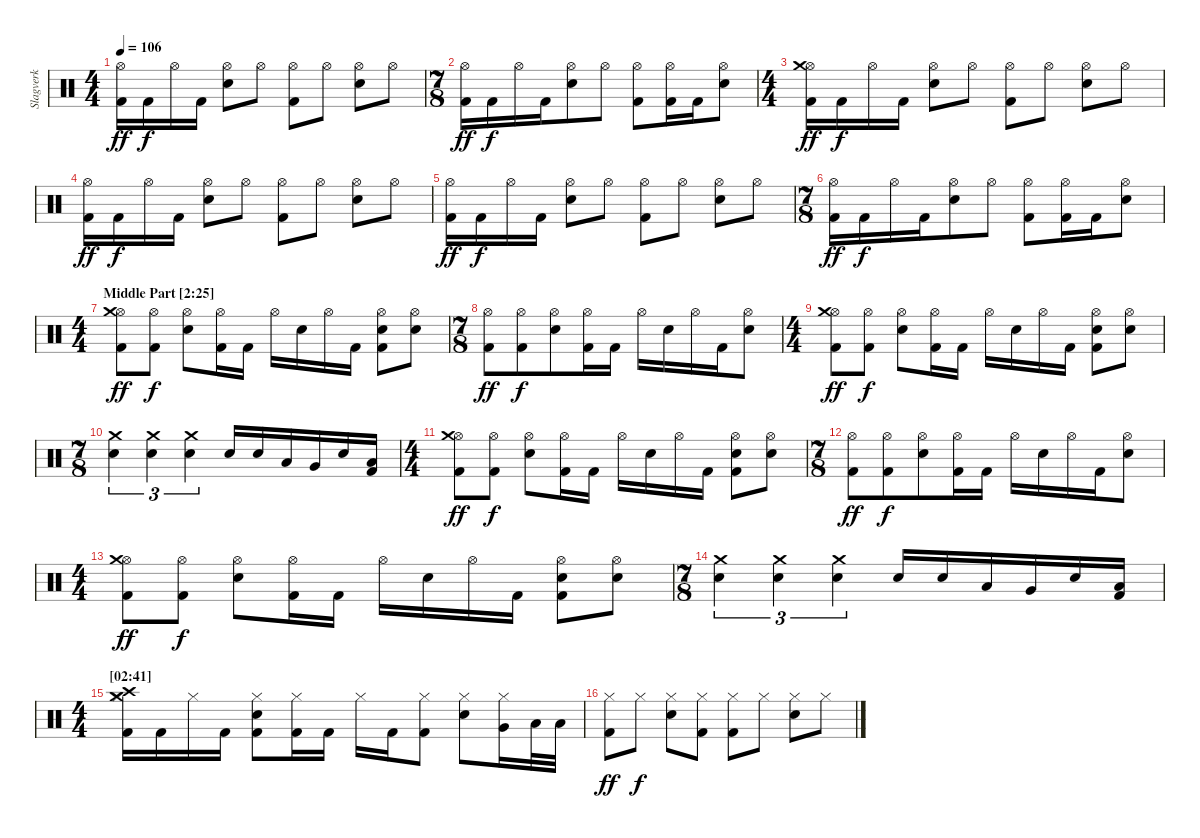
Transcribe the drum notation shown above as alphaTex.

\track ("Slagverk" "Slagverk") {instrument percussion}
\staff {score}
\articulation defaults
\ts (4 4)
\tempo 106
\clef neutral
\ks c
("Hi-Hat (open)" "Kick (hit) 2").16{dy ff} "Kick (hit) 2".16{dy f} "Hi-Hat (open)".16 "Kick (hit) 2".16 ("Hi-Hat (open)" "Electric Snare (hit)").8 "Hi-Hat (open)".8 ("Hi-Hat (open)" "Kick (hit) 2").8 "Hi-Hat (open)".8 ("Hi-Hat (open)" "Electric Snare (hit)").8 "Hi-Hat (open)".8 |
\ts (7 8)
("Hi-Hat (open)" "Kick (hit) 2").16{dy ff} "Kick (hit) 2".16{dy f} "Hi-Hat (open)".16 "Kick (hit) 2".16 ("Hi-Hat (open)" "Electric Snare (hit)").8 "Hi-Hat (open)".8 ("Hi-Hat (open)" "Kick (hit) 2").8 ("Hi-Hat (open)" "Kick (hit) 2").16 "Kick (hit) 2".16 ("Hi-Hat (open)" "Electric Snare (hit)").8 |
\ts (4 4)
("Hi-Hat (open)" "Crash medium (hit)" "Kick (hit) 2").16{dy ff} "Kick (hit) 2".16{dy f} "Hi-Hat (open)".16 "Kick (hit) 2".16 ("Hi-Hat (open)" "Electric Snare (hit)").8 "Hi-Hat (open)".8 ("Hi-Hat (open)" "Kick (hit) 2").8 "Hi-Hat (open)".8 ("Hi-Hat (open)" "Electric Snare (hit)").8 "Hi-Hat (open)".8 |
("Hi-Hat (open)" "Kick (hit) 2").16{dy ff} "Kick (hit) 2".16{dy f} "Hi-Hat (open)".16 "Kick (hit) 2".16 ("Hi-Hat (open)" "Electric Snare (hit)").8 "Hi-Hat (open)".8 ("Hi-Hat (open)" "Kick (hit) 2").8 "Hi-Hat (open)".8 ("Hi-Hat (open)" "Electric Snare (hit)").8 "Hi-Hat (open)".8 |
("Hi-Hat (open)" "Kick (hit) 2").16{dy ff} "Kick (hit) 2".16{dy f} "Hi-Hat (open)".16 "Kick (hit) 2".16 ("Hi-Hat (open)" "Electric Snare (hit)").8 "Hi-Hat (open)".8 ("Hi-Hat (open)" "Kick (hit) 2").8 "Hi-Hat (open)".8 ("Hi-Hat (open)" "Electric Snare (hit)").8 "Hi-Hat (open)".8 |
\ts (7 8)
("Hi-Hat (open)" "Kick (hit) 2").16{dy ff} "Kick (hit) 2".16{dy f} "Hi-Hat (open)".16 "Kick (hit) 2".16 ("Hi-Hat (open)" "Electric Snare (hit)").8 "Hi-Hat (open)".8 ("Hi-Hat (open)" "Kick (hit) 2").8 ("Hi-Hat (open)" "Kick (hit) 2").16 "Kick (hit) 2".16 ("Hi-Hat (open)" "Electric Snare (hit)").8 |
\ts (4 4)
\section ("" "Middle Part [2:25]")
("Hi-Hat (open)" "Crash medium (hit)" "Kick (hit) 2").8{dy ff} ("Hi-Hat (open)" "Kick (hit) 2").8{dy f} ("Hi-Hat (open)" "Electric Snare (hit)").8 ("Hi-Hat (open)" "Kick (hit) 2").16 "Kick (hit) 2".16 "Hi-Hat (open)".16 "Electric Snare (hit)".16 "Hi-Hat (open)".16 "Kick (hit) 2".16 ("Hi-Hat (open)" "Electric Snare (hit)" "Kick (hit) 2").8 ("Hi-Hat (open)" "Electric Snare (hit)").8 |
\ts (7 8)
("Hi-Hat (open)" "Kick (hit) 2").8{dy ff} ("Hi-Hat (open)" "Kick (hit) 2").8{dy f} ("Hi-Hat (open)" "Electric Snare (hit)").8 ("Hi-Hat (open)" "Kick (hit) 2").16 "Kick (hit) 2".16 "Hi-Hat (open)".16 "Electric Snare (hit)".16 "Hi-Hat (open)".16 "Kick (hit) 2".16 ("Hi-Hat (open)" "Electric Snare (hit)").8 |
\ts (4 4)
("Hi-Hat (open)" "Crash medium (hit)" "Kick (hit) 2").8{dy ff} ("Hi-Hat (open)" "Kick (hit) 2").8{dy f} ("Hi-Hat (open)" "Electric Snare (hit)").8 ("Hi-Hat (open)" "Kick (hit) 2").16 "Kick (hit) 2".16 "Hi-Hat (open)".16 "Electric Snare (hit)".16 "Hi-Hat (open)".16 "Kick (hit) 2".16 ("Hi-Hat (open)" "Electric Snare (hit)" "Kick (hit) 2").8 ("Hi-Hat (open)" "Electric Snare (hit)").8 |
\ts (7 8)
("Crash medium (hit)" "Electric Snare (hit)").4{tu (3 2)} ("Crash medium (hit)" "Electric Snare (hit)").4{tu (3 2)} ("Crash medium (hit)" "Electric Snare (hit)").4{tu (3 2)} "Electric Snare (hit)".16 "Electric Snare (hit)".16 "Low Tom (hit)".16 "Very Low Tom (hit)".16 "Electric Snare (hit)".16 ("Low Floor Tom (hit)" "Kick (hit) 2").16 |
\ts (4 4)
("Hi-Hat (open)" "Crash medium (hit)" "Kick (hit) 2").8{dy ff} ("Hi-Hat (open)" "Kick (hit) 2").8{dy f} ("Hi-Hat (open)" "Electric Snare (hit)").8 ("Hi-Hat (open)" "Kick (hit) 2").16 "Kick (hit) 2".16 "Hi-Hat (open)".16 "Electric Snare (hit)".16 "Hi-Hat (open)".16 "Kick (hit) 2".16 ("Hi-Hat (open)" "Electric Snare (hit)" "Kick (hit) 2").8 ("Hi-Hat (open)" "Electric Snare (hit)").8 |
\ts (7 8)
("Hi-Hat (open)" "Kick (hit) 2").8{dy ff} ("Hi-Hat (open)" "Kick (hit) 2").8{dy f} ("Hi-Hat (open)" "Electric Snare (hit)").8 ("Hi-Hat (open)" "Kick (hit) 2").16 "Kick (hit) 2".16 "Hi-Hat (open)".16 "Electric Snare (hit)".16 "Hi-Hat (open)".16 "Kick (hit) 2".16 ("Hi-Hat (open)" "Electric Snare (hit)").8 |
\ts (4 4)
("Hi-Hat (open)" "Crash medium (hit)" "Kick (hit) 2").8{dy ff} ("Hi-Hat (open)" "Kick (hit) 2").8{dy f} ("Hi-Hat (open)" "Electric Snare (hit)").8 ("Hi-Hat (open)" "Kick (hit) 2").16 "Kick (hit) 2".16 "Hi-Hat (open)".16 "Electric Snare (hit)".16 "Hi-Hat (open)".16 "Kick (hit) 2".16 ("Hi-Hat (open)" "Electric Snare (hit)" "Kick (hit) 2").8 ("Hi-Hat (open)" "Electric Snare (hit)").8 |
\ts (7 8)
("Crash medium (hit)" "Electric Snare (hit)").4{tu (3 2)} ("Crash medium (hit)" "Electric Snare (hit)").4{tu (3 2)} ("Crash medium (hit)" "Electric Snare (hit)").4{tu (3 2)} "Electric Snare (hit)".16 "Electric Snare (hit)".16 "Low Tom (hit)".16 "Very Low Tom (hit)".16 "Electric Snare (hit)".16 ("Low Floor Tom (hit)" "Kick (hit) 2").16 |
\ts (4 4)
\section ("" "[02:41]")
("Hi-Hat (closed)" "Crash medium (hit)" "Crash high (hit)" "Kick (hit) 2").16 "Kick (hit) 2".16 "Hi-Hat (closed)".16 "Kick (hit) 2".16 ("Hi-Hat (closed)" "Electric Snare (hit)" "Kick (hit) 2").8 ("Hi-Hat (closed)" "Kick (hit) 2").16 "Kick (hit) 2".16 "Hi-Hat (closed)".16 "Kick (hit) 2".16 ("Hi-Hat (closed)" "Kick (hit) 2").8 ("Hi-Hat (closed)" "Electric Snare (hit)").8 ("Hi-Hat (closed)" "Very Low Tom (hit)").16 "Low Floor Tom (hit)".32 "Low Floor Tom (hit)".32 |
("Hi-Hat (closed)" "Kick (hit) 2").8{dy ff} "Hi-Hat (closed)".8{dy f} ("Hi-Hat (closed)" "Electric Snare (hit)").8 ("Hi-Hat (closed)" "Kick (hit) 2").8 ("Hi-Hat (closed)" "Kick (hit) 2").8 "Hi-Hat (closed)".8 ("Hi-Hat (closed)" "Electric Snare (hit)").8 "Hi-Hat (closed)".8
